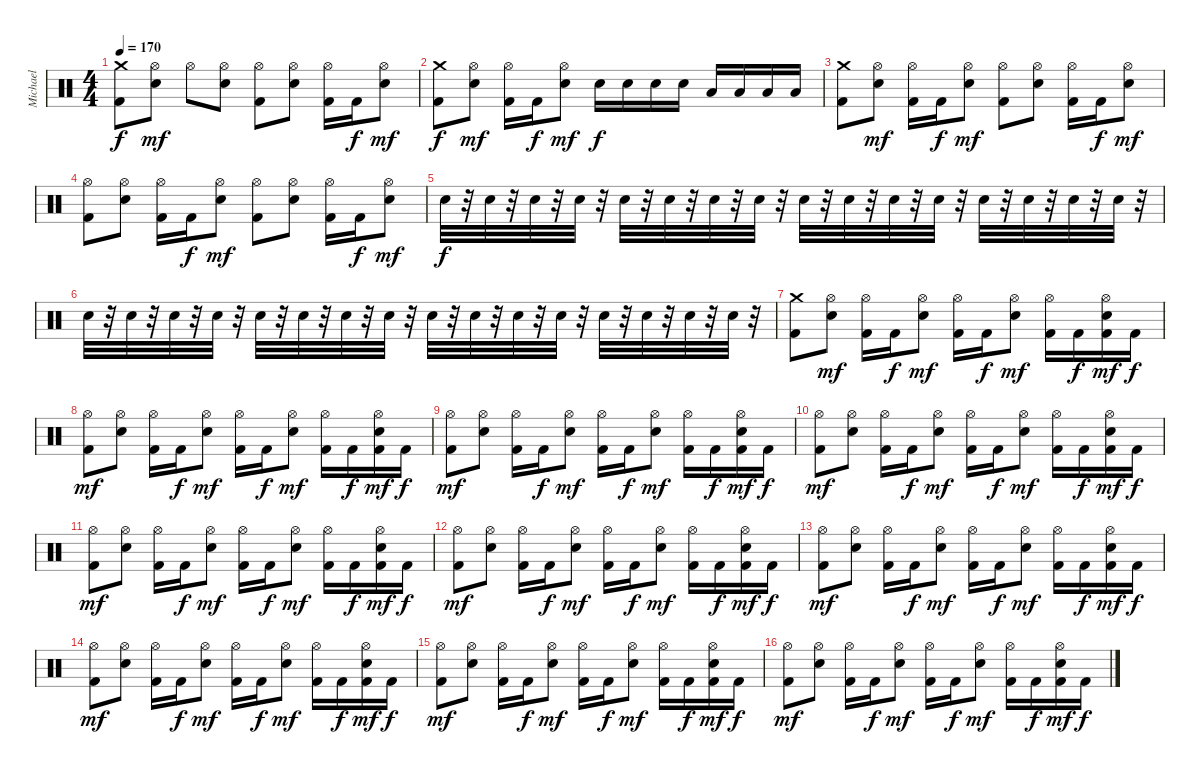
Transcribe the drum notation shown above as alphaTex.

\track ("Michael" "Michael") {instrument percussion}
\staff {score}
\articulation defaults
\ts (4 4)
\tempo 170
\clef neutral
\ks c
("Crash medium (hit)" "Kick (hit) 2").8{dy f} ("Hi-Hat (open)" "Electric Snare (hit)").8{dy mf} "Hi-Hat (open)".8 ("Hi-Hat (open)" "Electric Snare (hit)").8 ("Hi-Hat (open)" "Kick (hit) 2").8 ("Hi-Hat (open)" "Electric Snare (hit)").8 ("Hi-Hat (open)" "Kick (hit) 2").16 "Kick (hit) 2".16{dy f} ("Hi-Hat (open)" "Electric Snare (hit)").8{dy mf} |
("Crash medium (hit)" "Kick (hit) 2").8{dy f} ("Hi-Hat (open)" "Electric Snare (hit)").8{dy mf} ("Hi-Hat (open)" "Kick (hit) 2").16 "Kick (hit) 2".16{dy f} ("Hi-Hat (open)" "Electric Snare (hit)").8{dy mf} "Electric Snare (hit)".16{dy f} "Electric Snare (hit)".16 "Electric Snare (hit)".16 "Electric Snare (hit)".16 "Low Tom (hit)".16 "Low Tom (hit)".16 "Low Tom (hit)".16 "Low Tom (hit)".16 |
("Crash medium (hit)" "Kick (hit) 2").8 ("Hi-Hat (open)" "Electric Snare (hit)").8{dy mf} ("Hi-Hat (open)" "Kick (hit) 2").16 "Kick (hit) 2".16{dy f} ("Hi-Hat (open)" "Electric Snare (hit)").8{dy mf} ("Hi-Hat (open)" "Kick (hit) 2").8 ("Hi-Hat (open)" "Electric Snare (hit)").8 ("Hi-Hat (open)" "Kick (hit) 2").16 "Kick (hit) 2".16{dy f} ("Hi-Hat (open)" "Electric Snare (hit)").8{dy mf} |
("Hi-Hat (open)" "Kick (hit) 2").8 ("Hi-Hat (open)" "Electric Snare (hit)").8 ("Hi-Hat (open)" "Kick (hit) 2").16 "Kick (hit) 2".16{dy f} ("Hi-Hat (open)" "Electric Snare (hit)").8{dy mf} ("Hi-Hat (open)" "Kick (hit) 2").8 ("Hi-Hat (open)" "Electric Snare (hit)").8 ("Hi-Hat (open)" "Kick (hit) 2").16 "Kick (hit) 2".16{dy f} ("Hi-Hat (open)" "Electric Snare (hit)").8{dy mf} |
"Electric Snare (hit)".32{dy f} r.32 "Electric Snare (hit)".32 r.32 "Electric Snare (hit)".32 r.32 "Electric Snare (hit)".32 r.32 "Electric Snare (hit)".32 r.32 "Electric Snare (hit)".32 r.32 "Electric Snare (hit)".32 r.32 "Electric Snare (hit)".32 r.32 "Electric Snare (hit)".32 r.32 "Electric Snare (hit)".32 r.32 "Electric Snare (hit)".32 r.32 "Electric Snare (hit)".32 r.32 "Electric Snare (hit)".32 r.32 "Electric Snare (hit)".32 r.32 "Electric Snare (hit)".32 r.32 "Electric Snare (hit)".32 r.32 |
"Electric Snare (hit)".32 r.32 "Electric Snare (hit)".32 r.32 "Electric Snare (hit)".32 r.32 "Electric Snare (hit)".32 r.32 "Electric Snare (hit)".32 r.32 "Electric Snare (hit)".32 r.32 "Electric Snare (hit)".32 r.32 "Electric Snare (hit)".32 r.32 "Electric Snare (hit)".32 r.32 "Electric Snare (hit)".32 r.32 "Electric Snare (hit)".32 r.32 "Electric Snare (hit)".32 r.32 "Electric Snare (hit)".32 r.32 "Electric Snare (hit)".32 r.32 "Electric Snare (hit)".32 r.32 "Electric Snare (hit)".32 r.32 |
("Crash medium (hit)" "Kick (hit) 2").8 ("Hi-Hat (open)" "Electric Snare (hit)").8{dy mf} ("Hi-Hat (open)" "Kick (hit) 2").16 "Kick (hit) 2".16{dy f} ("Hi-Hat (open)" "Electric Snare (hit)").8{dy mf} ("Hi-Hat (open)" "Kick (hit) 2").16 "Kick (hit) 2".16{dy f} ("Hi-Hat (open)" "Electric Snare (hit)").8{dy mf} ("Hi-Hat (open)" "Kick (hit) 2").16 "Kick (hit) 2".16{dy f} ("Hi-Hat (open)" "Electric Snare (hit)" "Kick (hit) 2").16{dy mf} "Kick (hit) 2".16{dy f} |
("Hi-Hat (open)" "Kick (hit) 2").8{dy mf} ("Hi-Hat (open)" "Electric Snare (hit)").8 ("Hi-Hat (open)" "Kick (hit) 2").16 "Kick (hit) 2".16{dy f} ("Hi-Hat (open)" "Electric Snare (hit)").8{dy mf} ("Hi-Hat (open)" "Kick (hit) 2").16 "Kick (hit) 2".16{dy f} ("Hi-Hat (open)" "Electric Snare (hit)").8{dy mf} ("Hi-Hat (open)" "Kick (hit) 2").16 "Kick (hit) 2".16{dy f} ("Hi-Hat (open)" "Electric Snare (hit)" "Kick (hit) 2").16{dy mf} "Kick (hit) 2".16{dy f} |
("Hi-Hat (open)" "Kick (hit) 2").8{dy mf} ("Hi-Hat (open)" "Electric Snare (hit)").8 ("Hi-Hat (open)" "Kick (hit) 2").16 "Kick (hit) 2".16{dy f} ("Hi-Hat (open)" "Electric Snare (hit)").8{dy mf} ("Hi-Hat (open)" "Kick (hit) 2").16 "Kick (hit) 2".16{dy f} ("Hi-Hat (open)" "Electric Snare (hit)").8{dy mf} ("Hi-Hat (open)" "Kick (hit) 2").16 "Kick (hit) 2".16{dy f} ("Hi-Hat (open)" "Electric Snare (hit)" "Kick (hit) 2").16{dy mf} "Kick (hit) 2".16{dy f} |
("Hi-Hat (open)" "Kick (hit) 2").8{dy mf} ("Hi-Hat (open)" "Electric Snare (hit)").8 ("Hi-Hat (open)" "Kick (hit) 2").16 "Kick (hit) 2".16{dy f} ("Hi-Hat (open)" "Electric Snare (hit)").8{dy mf} ("Hi-Hat (open)" "Kick (hit) 2").16 "Kick (hit) 2".16{dy f} ("Hi-Hat (open)" "Electric Snare (hit)").8{dy mf} ("Hi-Hat (open)" "Kick (hit) 2").16 "Kick (hit) 2".16{dy f} ("Hi-Hat (open)" "Electric Snare (hit)" "Kick (hit) 2").16{dy mf} "Kick (hit) 2".16{dy f} |
("Hi-Hat (open)" "Kick (hit) 2").8{dy mf} ("Hi-Hat (open)" "Electric Snare (hit)").8 ("Hi-Hat (open)" "Kick (hit) 2").16 "Kick (hit) 2".16{dy f} ("Hi-Hat (open)" "Electric Snare (hit)").8{dy mf} ("Hi-Hat (open)" "Kick (hit) 2").16 "Kick (hit) 2".16{dy f} ("Hi-Hat (open)" "Electric Snare (hit)").8{dy mf} ("Hi-Hat (open)" "Kick (hit) 2").16 "Kick (hit) 2".16{dy f} ("Hi-Hat (open)" "Electric Snare (hit)" "Kick (hit) 2").16{dy mf} "Kick (hit) 2".16{dy f} |
("Hi-Hat (open)" "Kick (hit) 2").8{dy mf} ("Hi-Hat (open)" "Electric Snare (hit)").8 ("Hi-Hat (open)" "Kick (hit) 2").16 "Kick (hit) 2".16{dy f} ("Hi-Hat (open)" "Electric Snare (hit)").8{dy mf} ("Hi-Hat (open)" "Kick (hit) 2").16 "Kick (hit) 2".16{dy f} ("Hi-Hat (open)" "Electric Snare (hit)").8{dy mf} ("Hi-Hat (open)" "Kick (hit) 2").16 "Kick (hit) 2".16{dy f} ("Hi-Hat (open)" "Electric Snare (hit)" "Kick (hit) 2").16{dy mf} "Kick (hit) 2".16{dy f} |
("Hi-Hat (open)" "Kick (hit) 2").8{dy mf} ("Hi-Hat (open)" "Electric Snare (hit)").8 ("Hi-Hat (open)" "Kick (hit) 2").16 "Kick (hit) 2".16{dy f} ("Hi-Hat (open)" "Electric Snare (hit)").8{dy mf} ("Hi-Hat (open)" "Kick (hit) 2").16 "Kick (hit) 2".16{dy f} ("Hi-Hat (open)" "Electric Snare (hit)").8{dy mf} ("Hi-Hat (open)" "Kick (hit) 2").16 "Kick (hit) 2".16{dy f} ("Hi-Hat (open)" "Electric Snare (hit)" "Kick (hit) 2").16{dy mf} "Kick (hit) 2".16{dy f} |
("Hi-Hat (open)" "Kick (hit) 2").8{dy mf} ("Hi-Hat (open)" "Electric Snare (hit)").8 ("Hi-Hat (open)" "Kick (hit) 2").16 "Kick (hit) 2".16{dy f} ("Hi-Hat (open)" "Electric Snare (hit)").8{dy mf} ("Hi-Hat (open)" "Kick (hit) 2").16 "Kick (hit) 2".16{dy f} ("Hi-Hat (open)" "Electric Snare (hit)").8{dy mf} ("Hi-Hat (open)" "Kick (hit) 2").16 "Kick (hit) 2".16{dy f} ("Hi-Hat (open)" "Electric Snare (hit)" "Kick (hit) 2").16{dy mf} "Kick (hit) 2".16{dy f} |
("Hi-Hat (open)" "Kick (hit) 2").8{dy mf} ("Hi-Hat (open)" "Electric Snare (hit)").8 ("Hi-Hat (open)" "Kick (hit) 2").16 "Kick (hit) 2".16{dy f} ("Hi-Hat (open)" "Electric Snare (hit)").8{dy mf} ("Hi-Hat (open)" "Kick (hit) 2").16 "Kick (hit) 2".16{dy f} ("Hi-Hat (open)" "Electric Snare (hit)").8{dy mf} ("Hi-Hat (open)" "Kick (hit) 2").16 "Kick (hit) 2".16{dy f} ("Hi-Hat (open)" "Electric Snare (hit)" "Kick (hit) 2").16{dy mf} "Kick (hit) 2".16{dy f} |
("Hi-Hat (open)" "Kick (hit) 2").8{dy mf} ("Hi-Hat (open)" "Electric Snare (hit)").8 ("Hi-Hat (open)" "Kick (hit) 2").16 "Kick (hit) 2".16{dy f} ("Hi-Hat (open)" "Electric Snare (hit)").8{dy mf} ("Hi-Hat (open)" "Kick (hit) 2").16 "Kick (hit) 2".16{dy f} ("Hi-Hat (open)" "Electric Snare (hit)").8{dy mf} ("Hi-Hat (open)" "Kick (hit) 2").16 "Kick (hit) 2".16{dy f} ("Hi-Hat (open)" "Electric Snare (hit)" "Kick (hit) 2").16{dy mf} "Kick (hit) 2".16{dy f}
